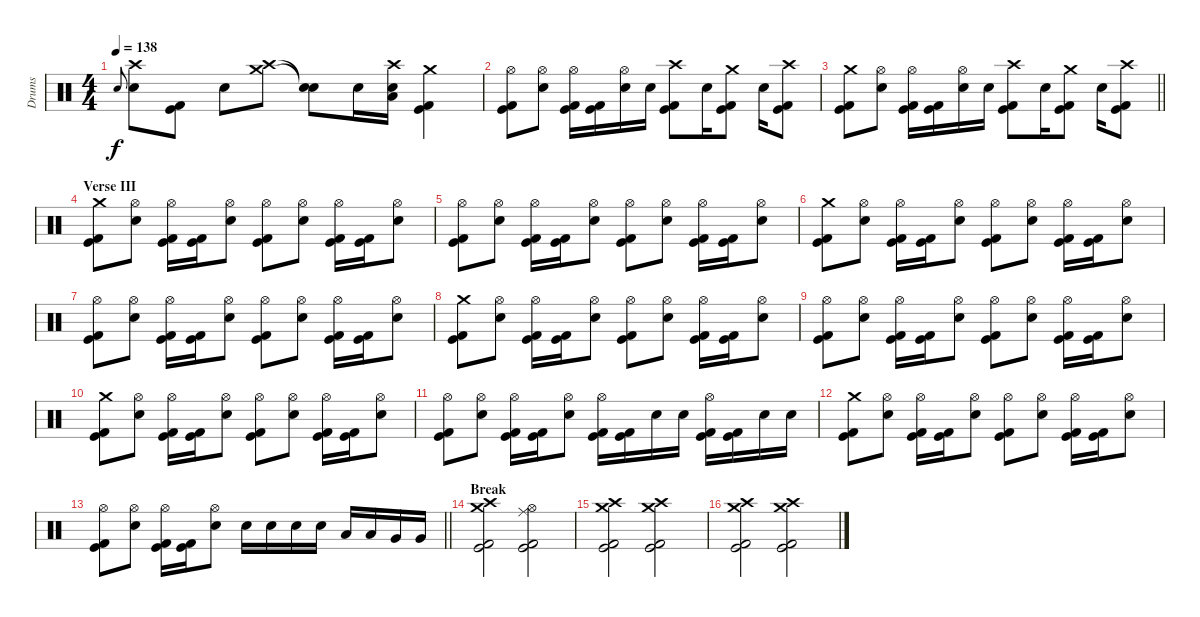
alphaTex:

\track ("Drums" "Drums") {instrument percussion}
\staff {score}
\articulation defaults
\ts (4 4)
\tempo 138
\clef neutral
\ks c "Electric Snare (hit)".8{gr onbeat dy f}
("Crash high (hit)" "Electric Snare (hit)").8 ("Kick (hit)" "Kick (hit) 2").8 "Electric Snare (hit)".8 ("Crash medium (hit)" "Crash high (hit)").8 ("Snare (hit)"{t} "Snare (hit)"{t}).8 "Electric Snare (hit)".16 ("Crash high (hit)" "Electric Snare (hit)" "Low Floor Tom (hit)").16 ("Crash medium (hit)" "Kick (hit)" "Kick (hit) 2").4 |
("Hi-Hat (open)" "Kick (hit)" "Kick (hit) 2").8 ("Hi-Hat (open)" "Electric Snare (hit)").8 ("Hi-Hat (open)" "Kick (hit)" "Kick (hit) 2").16 ("Kick (hit)" "Kick (hit) 2").16 ("Hi-Hat (open)" "Electric Snare (hit)").16 "Electric Snare (hit)".16 ("Crash high (hit)" "Kick (hit)" "Kick (hit) 2").8 "Electric Snare (hit)".16 ("Crash medium (hit)" "Kick (hit)" "Kick (hit) 2").8 "Electric Snare (hit)".16 ("Crash high (hit)" "Kick (hit)" "Kick (hit) 2").8 |
\barLineRight lightlight
("Crash medium (hit)" "Kick (hit)" "Kick (hit) 2").8 ("Hi-Hat (open)" "Electric Snare (hit)").8 ("Hi-Hat (open)" "Kick (hit)" "Kick (hit) 2").16 ("Kick (hit)" "Kick (hit) 2").16 ("Hi-Hat (open)" "Electric Snare (hit)").16 "Electric Snare (hit)".16 ("Crash high (hit)" "Kick (hit)" "Kick (hit) 2").8 "Electric Snare (hit)".16 ("Crash medium (hit)" "Kick (hit)" "Kick (hit) 2").8 "Electric Snare (hit)".16 ("Crash high (hit)" "Kick (hit)" "Kick (hit) 2").8 |
\section ("" "Verse III")
("Crash medium (hit)" "Kick (hit)" "Kick (hit) 2").8 ("Hi-Hat (open)" "Electric Snare (hit)").8 ("Hi-Hat (open)" "Kick (hit)" "Kick (hit) 2").16 ("Kick (hit)" "Kick (hit) 2").16 ("Hi-Hat (open)" "Electric Snare (hit)").8 ("Hi-Hat (open)" "Kick (hit)" "Kick (hit) 2").8 ("Hi-Hat (open)" "Electric Snare (hit)").8 ("Hi-Hat (open)" "Kick (hit)" "Kick (hit) 2").16 ("Kick (hit)" "Kick (hit) 2").16 ("Hi-Hat (open)" "Electric Snare (hit)").8 |
("Hi-Hat (open)" "Kick (hit)" "Kick (hit) 2").8 ("Hi-Hat (open)" "Electric Snare (hit)").8 ("Hi-Hat (open)" "Kick (hit)" "Kick (hit) 2").16 ("Kick (hit)" "Kick (hit) 2").16 ("Hi-Hat (open)" "Electric Snare (hit)").8 ("Hi-Hat (open)" "Kick (hit)" "Kick (hit) 2").8 ("Hi-Hat (open)" "Electric Snare (hit)").8 ("Hi-Hat (open)" "Kick (hit)" "Kick (hit) 2").16 ("Kick (hit)" "Kick (hit) 2").16 ("Hi-Hat (open)" "Electric Snare (hit)").8 |
("Crash medium (hit)" "Kick (hit)" "Kick (hit) 2").8 ("Hi-Hat (open)" "Electric Snare (hit)").8 ("Hi-Hat (open)" "Kick (hit)" "Kick (hit) 2").16 ("Kick (hit)" "Kick (hit) 2").16 ("Hi-Hat (open)" "Electric Snare (hit)").8 ("Hi-Hat (open)" "Kick (hit)" "Kick (hit) 2").8 ("Hi-Hat (open)" "Electric Snare (hit)").8 ("Hi-Hat (open)" "Kick (hit)" "Kick (hit) 2").16 ("Kick (hit)" "Kick (hit) 2").16 ("Hi-Hat (open)" "Electric Snare (hit)").8 |
("Hi-Hat (open)" "Kick (hit)" "Kick (hit) 2").8 ("Hi-Hat (open)" "Electric Snare (hit)").8 ("Hi-Hat (open)" "Kick (hit)" "Kick (hit) 2").16 ("Kick (hit)" "Kick (hit) 2").16 ("Hi-Hat (open)" "Electric Snare (hit)").8 ("Hi-Hat (open)" "Kick (hit)" "Kick (hit) 2").8 ("Hi-Hat (open)" "Electric Snare (hit)").8 ("Hi-Hat (open)" "Kick (hit)" "Kick (hit) 2").16 ("Kick (hit)" "Kick (hit) 2").16 ("Hi-Hat (open)" "Electric Snare (hit)").8 |
("Crash medium (hit)" "Kick (hit)" "Kick (hit) 2").8 ("Hi-Hat (open)" "Electric Snare (hit)").8 ("Hi-Hat (open)" "Kick (hit)" "Kick (hit) 2").16 ("Kick (hit)" "Kick (hit) 2").16 ("Hi-Hat (open)" "Electric Snare (hit)").8 ("Hi-Hat (open)" "Kick (hit)" "Kick (hit) 2").8 ("Hi-Hat (open)" "Electric Snare (hit)").8 ("Hi-Hat (open)" "Kick (hit)" "Kick (hit) 2").16 ("Kick (hit)" "Kick (hit) 2").16 ("Hi-Hat (open)" "Electric Snare (hit)").8 |
("Hi-Hat (open)" "Kick (hit)" "Kick (hit) 2").8 ("Hi-Hat (open)" "Electric Snare (hit)").8 ("Hi-Hat (open)" "Kick (hit)" "Kick (hit) 2").16 ("Kick (hit)" "Kick (hit) 2").16 ("Hi-Hat (open)" "Electric Snare (hit)").8 ("Hi-Hat (open)" "Kick (hit)" "Kick (hit) 2").8 ("Hi-Hat (open)" "Electric Snare (hit)").8 ("Hi-Hat (open)" "Kick (hit)" "Kick (hit) 2").16 ("Kick (hit)" "Kick (hit) 2").16 ("Hi-Hat (open)" "Electric Snare (hit)").8 |
("Crash medium (hit)" "Kick (hit)" "Kick (hit) 2").8 ("Hi-Hat (open)" "Electric Snare (hit)").8 ("Hi-Hat (open)" "Kick (hit)" "Kick (hit) 2").16 ("Kick (hit)" "Kick (hit) 2").16 ("Hi-Hat (open)" "Electric Snare (hit)").8 ("Hi-Hat (open)" "Kick (hit)" "Kick (hit) 2").8 ("Hi-Hat (open)" "Electric Snare (hit)").8 ("Hi-Hat (open)" "Kick (hit)" "Kick (hit) 2").16 ("Kick (hit)" "Kick (hit) 2").16 ("Hi-Hat (open)" "Electric Snare (hit)").8 |
("Hi-Hat (open)" "Kick (hit)" "Kick (hit) 2").8 ("Hi-Hat (open)" "Electric Snare (hit)").8 ("Hi-Hat (open)" "Kick (hit)" "Kick (hit) 2").16 ("Kick (hit)" "Kick (hit) 2").16 ("Hi-Hat (open)" "Electric Snare (hit)").8 ("Hi-Hat (open)" "Kick (hit)" "Kick (hit) 2").16 ("Kick (hit)" "Kick (hit) 2").16 "Electric Snare (hit)".16 "Electric Snare (hit)".16 ("Hi-Hat (open)" "Kick (hit)" "Kick (hit) 2").16 ("Kick (hit)" "Kick (hit) 2").16 "Electric Snare (hit)".16 "Electric Snare (hit)".16 |
("Crash medium (hit)" "Kick (hit)" "Kick (hit) 2").8 ("Hi-Hat (open)" "Electric Snare (hit)").8 ("Hi-Hat (open)" "Kick (hit)" "Kick (hit) 2").16 ("Kick (hit)" "Kick (hit) 2").16 ("Hi-Hat (open)" "Electric Snare (hit)").8 ("Hi-Hat (open)" "Kick (hit)" "Kick (hit) 2").8 ("Hi-Hat (open)" "Electric Snare (hit)").8 ("Hi-Hat (open)" "Kick (hit)" "Kick (hit) 2").16 ("Kick (hit)" "Kick (hit) 2").16 ("Hi-Hat (open)" "Electric Snare (hit)").8 |
\barLineRight lightlight
("Hi-Hat (open)" "Kick (hit)" "Kick (hit) 2").8 ("Hi-Hat (open)" "Electric Snare (hit)").8 ("Hi-Hat (open)" "Kick (hit)" "Kick (hit) 2").16 ("Kick (hit)" "Kick (hit) 2").16 ("Hi-Hat (open)" "Electric Snare (hit)").8 "Electric Snare (hit)".16 "Electric Snare (hit)".16 "Electric Snare (hit)".16 "Electric Snare (hit)".16 "Low Tom (hit)".16 "Low Tom (hit)".16 "Very Low Tom (hit)".16 "Very Low Tom (hit)".16 |
\section ("" "Break")
("Crash high (hit)" "Crash medium (hit)" "Kick (hit)" "Kick (hit) 2").2 ("Hi-Hat (open)" "Ride (middle)" "Kick (hit)" "Kick (hit) 2").2 |
("Crash high (hit)" "Crash medium (hit)" "Kick (hit)" "Kick (hit) 2").2 ("Crash high (hit)" "Crash medium (hit)" "Kick (hit)" "Kick (hit) 2").2 |
("Crash high (hit)" "Crash medium (hit)" "Kick (hit)" "Kick (hit) 2").2 ("Crash high (hit)" "Crash medium (hit)" "Kick (hit)" "Kick (hit) 2").2
